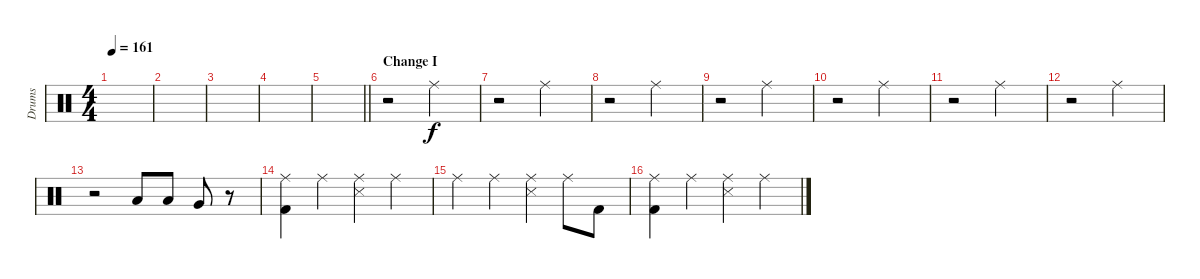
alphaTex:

\track ("Drums" "Drums") {instrument percussion}
\staff {score}
\articulation defaults
\ts (4 4)
\tempo 161
\clef neutral
\ks c
|
|
|
|
\barLineRight lightlight
|
\section ("" "Change I")
r.2 "Ride (middle)".2 |
r.2 "Ride (middle)".2 |
r.2 "Ride (middle)".2 |
r.2 "Ride (middle)".2 |
r.2 "Ride (middle)".2 |
r.2 "Ride (middle)".2 |
r.2 "Ride (middle)".2 |
r.2 "Low Tom (hit)".8 "Low Tom (hit)".8 "Very Low Tom (hit)".8 r.8 |
("Ride (middle)" "Kick (hit) 2").4 "Ride (middle)".4 ("Ride (middle)" "Snare (side stick) 3").4 "Ride (middle)".4 |
"Ride (middle)".4 "Ride (middle)".4 ("Ride (middle)" "Snare (side stick) 3").4 "Ride (middle)".8 "Kick (hit) 2".8 |
("Ride (middle)" "Kick (hit) 2").4 "Ride (middle)".4 ("Ride (middle)" "Snare (side stick) 3").4 "Ride (middle)".4
